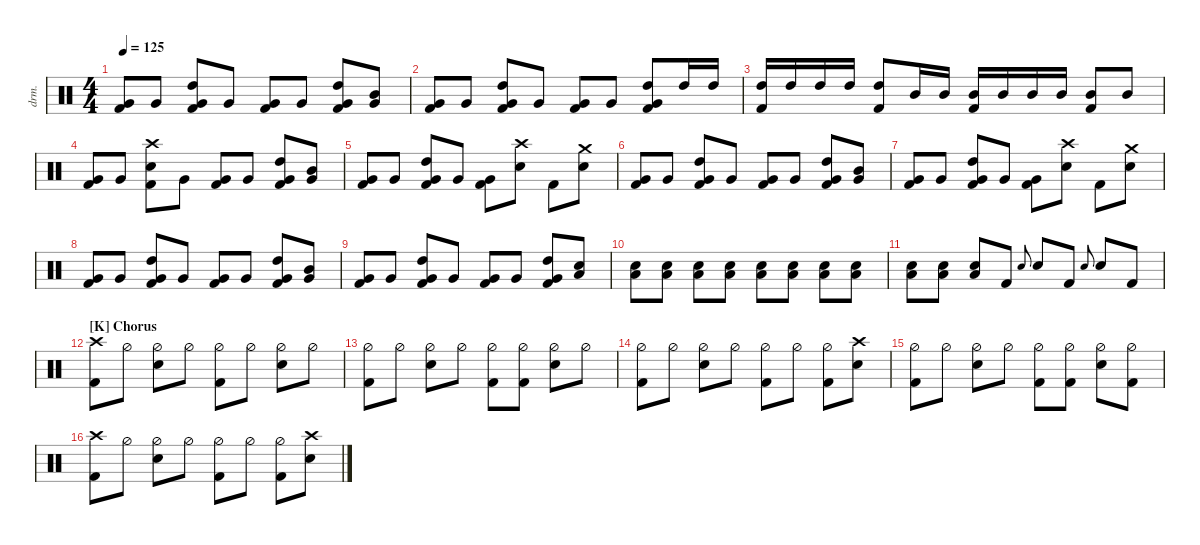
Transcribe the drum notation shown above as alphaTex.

\defaultSystemsLayout 4
\hideDynamics
\bracketExtendMode nobrackets
\otherSystemsTrackNameOrientation horizontal
\track ("Drums" "drm.") {defaultSystemsLayout 4 multiBarRest instrument percussion}
\staff
\articulation defaults
\ts (4 4)
\tempo 125
\clef neutral
\ks c
("Kick (hit) 2" "Very Low Tom (hit)").8{dy ff} "Very Low Tom (hit)".8 ("Very Low Tom (hit)" "Kick (hit) 2" "High Tom (hit)").8 "Very Low Tom (hit)".8 ("Very Low Tom (hit)" "Kick (hit) 2").8 "Very Low Tom (hit)".8 ("Very Low Tom (hit)" "Kick (hit) 2" "High Tom (hit)").8 ("Very Low Tom (hit)" "Mid Tom (hit)").8 |
("Kick (hit) 2" "Very Low Tom (hit)").8 "Very Low Tom (hit)".8 ("Very Low Tom (hit)" "Kick (hit) 2" "High Tom (hit)").8 "Very Low Tom (hit)".8 ("Very Low Tom (hit)" "Kick (hit) 2").8 "Very Low Tom (hit)".8 ("Very Low Tom (hit)" "Kick (hit) 2" "High Tom (hit)").8 "High Tom (hit)".16{dy fff} "High Tom (hit)".16 |
("High Tom (hit)" "Kick (hit) 2").16 "High Tom (hit)".16 "High Tom (hit)".16 "High Tom (hit)".16 ("High Tom (hit)" "Kick (hit) 2").8 "Mid Tom (hit)".16 "Mid Tom (hit)".16 ("Mid Tom (hit)" "Kick (hit) 2").16 "Mid Tom (hit)".16 "Mid Tom (hit)".16 "Mid Tom (hit)".16 ("Mid Tom (hit)" "Kick (hit) 2").8 "Mid Tom (hit)".8 |
("Kick (hit) 2" "Very Low Tom (hit)").8{dy ff} "Very Low Tom (hit)".8 ("Snare (hit) 2" "Kick (hit) 2" "Crash high (hit)").8{dy f} "Very Low Tom (hit)".8{dy ff} ("Very Low Tom (hit)" "Kick (hit) 2").8 "Very Low Tom (hit)".8 ("Very Low Tom (hit)" "Kick (hit) 2" "High Tom (hit)").8 ("Very Low Tom (hit)" "Mid Tom (hit)").8 |
("Kick (hit) 2" "Very Low Tom (hit)").8 "Very Low Tom (hit)".8 ("Very Low Tom (hit)" "Kick (hit) 2" "High Tom (hit)").8 "Very Low Tom (hit)".8 ("Very Low Tom (hit)" "Kick (hit) 2").8 ("Snare (hit) 2" "Crash high (hit)").8{dy f} "Kick (hit) 2".8 ("Snare (hit) 2" "Crash medium (hit)").8 |
("Kick (hit) 2" "Very Low Tom (hit)").8{dy ff} "Very Low Tom (hit)".8 ("Very Low Tom (hit)" "Kick (hit) 2" "High Tom (hit)").8 "Very Low Tom (hit)".8 ("Very Low Tom (hit)" "Kick (hit) 2").8 "Very Low Tom (hit)".8 ("Very Low Tom (hit)" "Kick (hit) 2" "High Tom (hit)").8 ("Very Low Tom (hit)" "Mid Tom (hit)").8 |
("Kick (hit) 2" "Very Low Tom (hit)").8 "Very Low Tom (hit)".8 ("Very Low Tom (hit)" "Kick (hit) 2" "High Tom (hit)").8 "Very Low Tom (hit)".8 ("Very Low Tom (hit)" "Kick (hit) 2").8 ("Snare (hit) 2" "Crash high (hit)").8{dy f} "Kick (hit) 2".8 ("Snare (hit) 2" "Crash medium (hit)").8 |
("Kick (hit) 2" "Very Low Tom (hit)").8{dy ff} "Very Low Tom (hit)".8 ("Very Low Tom (hit)" "Kick (hit) 2" "High Tom (hit)").8 "Very Low Tom (hit)".8 ("Very Low Tom (hit)" "Kick (hit) 2").8 "Very Low Tom (hit)".8 ("Very Low Tom (hit)" "Kick (hit) 2" "High Tom (hit)").8 ("Very Low Tom (hit)" "Mid Tom (hit)").8 |
("Kick (hit) 2" "Very Low Tom (hit)").8 "Very Low Tom (hit)".8 ("Very Low Tom (hit)" "Kick (hit) 2" "High Tom (hit)").8 "Very Low Tom (hit)".8 ("Very Low Tom (hit)" "Kick (hit) 2").8 "Very Low Tom (hit)".8 ("Very Low Tom (hit)" "Kick (hit) 2" "High Tom (hit)").8 ("Low Tom (hit)" "Snare (hit) 2").8{dy p} |
("Low Tom (hit)" "Snare (hit) 2").8{dy mp} ("Low Tom (hit)" "Snare (hit) 2").8 ("Low Tom (hit)" "Snare (hit) 2").8 ("Low Tom (hit)" "Snare (hit) 2").8{dy mf} ("Low Tom (hit)" "Snare (hit) 2").8 ("Low Tom (hit)" "Snare (hit) 2").8 ("Low Tom (hit)" "Snare (hit) 2").8 ("Low Tom (hit)" "Snare (hit) 2").8{dy f} |
("Low Tom (hit)" "Snare (hit) 2").8 ("Low Tom (hit)" "Snare (hit) 2").8 ("Low Tom (hit)" "Snare (hit) 2").8 "Kick (hit) 2".8 "Snare (hit) 2".8{gr onbeat} "Snare (hit) 2".8 "Kick (hit) 2".8 "Snare (hit) 2".8{gr onbeat} "Snare (hit) 2".8 "Kick (hit) 2".8 |
\section ("K" "Chorus")
("Kick (hit) 2" "Crash high (hit)").8 "Hi-Hat (half)".8 ("Hi-Hat (half)" "Snare (hit) 2").8 "Hi-Hat (half)".8 ("Hi-Hat (half)" "Kick (hit) 2").8 "Hi-Hat (half)".8 ("Hi-Hat (half)" "Snare (hit) 2").8 "Hi-Hat (half)".8 |
("Hi-Hat (half)" "Kick (hit) 2").8 "Hi-Hat (half)".8 ("Hi-Hat (half)" "Snare (hit) 2").8 "Hi-Hat (half)".8 ("Hi-Hat (half)" "Kick (hit) 2").8 ("Hi-Hat (half)" "Kick (hit) 2").8 ("Hi-Hat (half)" "Snare (hit) 2").8 "Hi-Hat (half)".8 |
("Hi-Hat (half)" "Kick (hit) 2").8 "Hi-Hat (half)".8 ("Hi-Hat (half)" "Snare (hit) 2").8 "Hi-Hat (half)".8 ("Hi-Hat (half)" "Kick (hit) 2").8 "Hi-Hat (half)".8 ("Hi-Hat (half)" "Kick (hit) 2").8 ("Snare (hit) 2" "Crash high (hit)").8 |
("Hi-Hat (half)" "Kick (hit) 2").8 "Hi-Hat (half)".8 ("Hi-Hat (half)" "Snare (hit) 2").8 "Hi-Hat (half)".8 ("Hi-Hat (half)" "Kick (hit) 2").8 ("Hi-Hat (half)" "Kick (hit) 2").8 ("Hi-Hat (half)" "Snare (hit) 2").8 ("Hi-Hat (half)" "Kick (hit) 2").8 |
("Kick (hit) 2" "Crash high (hit)").8 "Hi-Hat (half)".8 ("Hi-Hat (half)" "Snare (hit) 2").8 "Hi-Hat (half)".8 ("Hi-Hat (half)" "Kick (hit) 2").8 "Hi-Hat (half)".8 ("Hi-Hat (half)" "Kick (hit) 2").8 ("Snare (hit) 2" "Crash high (hit)").8
